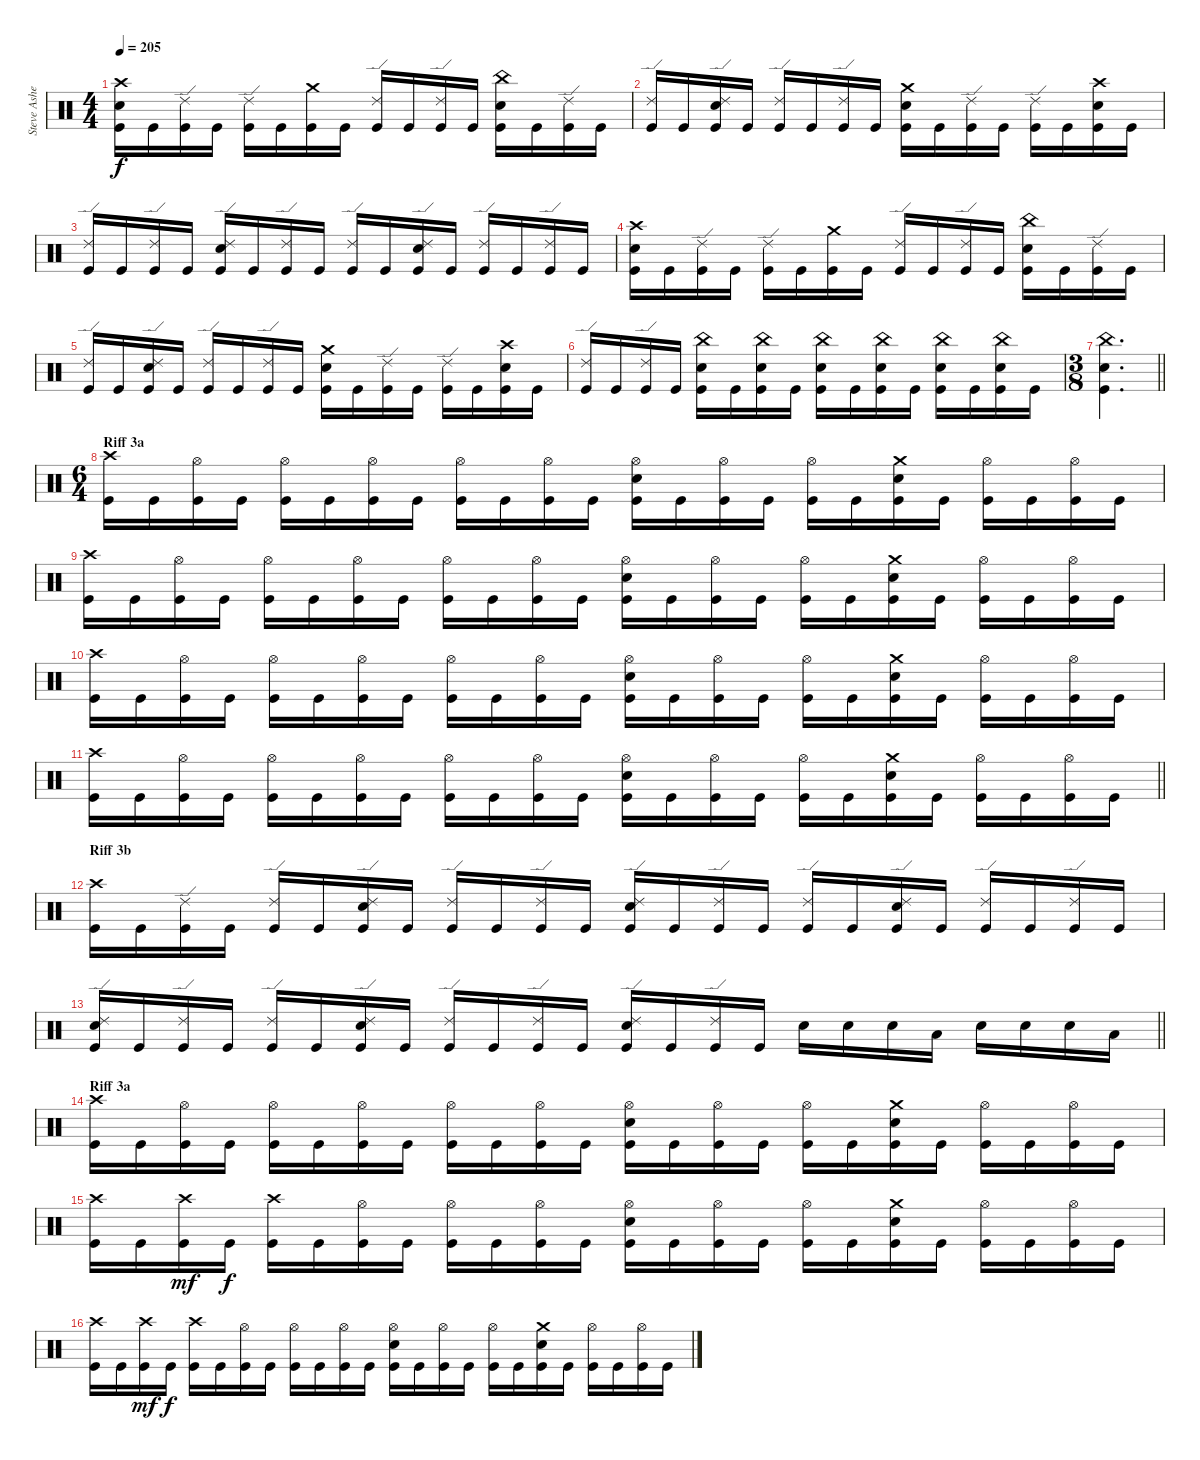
\track ("Steve Asheim" "Steve Ashe") {instrument percussion}
\staff {score}
\articulation defaults
\ts (4 4)
\tempo 205
\clef neutral
\ks c
("Crash high (hit)" "Snare (hit) 2" "Kick (hit)").16{dy f} "Kick (hit)".16 ("Ride (edge) 2" "Kick (hit)").16 "Kick (hit)".16 ("Ride (edge) 2" "Kick (hit)").16 "Kick (hit)".16 ("Crash medium (hit)" "Kick (hit)").16 "Kick (hit)".16 ("Ride (edge) 2" "Kick (hit)").16 "Kick (hit)".16 ("Ride (edge) 2" "Kick (hit)").16 "Kick (hit)".16 ("China (hit)" "Snare (hit) 2" "Kick (hit)").16 "Kick (hit)".16 ("Ride (edge) 2" "Kick (hit)").16 "Kick (hit)".16 |
("Ride (edge) 2" "Kick (hit)").16 "Kick (hit)".16 ("Ride (edge) 2" "Snare (hit) 2" "Kick (hit)").16 "Kick (hit)".16 ("Ride (edge) 2" "Kick (hit)").16 "Kick (hit)".16 ("Ride (edge) 2" "Kick (hit)").16 "Kick (hit)".16 ("Crash medium (hit)" "Snare (hit) 2" "Kick (hit)").16 "Kick (hit)".16 ("Ride (edge) 2" "Kick (hit)").16 "Kick (hit)".16 ("Ride (edge) 2" "Kick (hit)").16 "Kick (hit)".16 ("Crash high (hit)" "Snare (hit) 2" "Kick (hit)").16 "Kick (hit)".16 |
("Ride (edge) 2" "Kick (hit)").16 "Kick (hit)".16 ("Ride (edge) 2" "Kick (hit)").16 "Kick (hit)".16 ("Ride (edge) 2" "Snare (hit) 2" "Kick (hit)").16 "Kick (hit)".16 ("Ride (edge) 2" "Kick (hit)").16 "Kick (hit)".16 ("Ride (edge) 2" "Kick (hit)").16 "Kick (hit)".16 ("Ride (edge) 2" "Snare (hit) 2" "Kick (hit)").16 "Kick (hit)".16 ("Ride (edge) 2" "Kick (hit)").16 "Kick (hit)".16 ("Ride (edge) 2" "Kick (hit)").16 "Kick (hit)".16 |
("Crash high (hit)" "Snare (hit) 2" "Kick (hit)").16 "Kick (hit)".16 ("Ride (edge) 2" "Kick (hit)").16 "Kick (hit)".16 ("Ride (edge) 2" "Kick (hit)").16 "Kick (hit)".16 ("Crash medium (hit)" "Kick (hit)").16 "Kick (hit)".16 ("Ride (edge) 2" "Kick (hit)").16 "Kick (hit)".16 ("Ride (edge) 2" "Kick (hit)").16 "Kick (hit)".16 ("China (hit)" "Snare (hit) 2" "Kick (hit)").16 "Kick (hit)".16 ("Ride (edge) 2" "Kick (hit)").16 "Kick (hit)".16 |
("Ride (edge) 2" "Kick (hit)").16 "Kick (hit)".16 ("Ride (edge) 2" "Snare (hit) 2" "Kick (hit)").16 "Kick (hit)".16 ("Ride (edge) 2" "Kick (hit)").16 "Kick (hit)".16 ("Ride (edge) 2" "Kick (hit)").16 "Kick (hit)".16 ("Crash medium (hit)" "Snare (hit) 2" "Kick (hit)").16 "Kick (hit)".16 ("Ride (edge) 2" "Kick (hit)").16 "Kick (hit)".16 ("Ride (edge) 2" "Kick (hit)").16 "Kick (hit)".16 ("Crash high (hit)" "Snare (hit) 2" "Kick (hit)").16 "Kick (hit)".16 |
("Ride (edge) 2" "Kick (hit)").16 "Kick (hit)".16 ("Ride (edge) 2" "Kick (hit)").16 "Kick (hit)".16 ("China (hit)" "Snare (hit) 2" "Kick (hit)").16 "Kick (hit)".16 ("China (hit)" "Snare (hit) 2" "Kick (hit)").16 "Kick (hit)".16 ("China (hit)" "Snare (hit) 2" "Kick (hit)").16 "Kick (hit)".16 ("China (hit)" "Snare (hit) 2" "Kick (hit)").16 "Kick (hit)".16 ("China (hit)" "Snare (hit) 2" "Kick (hit)").16 "Kick (hit)".16 ("China (hit)" "Snare (hit) 2" "Kick (hit)").16 "Kick (hit)".16 |
\ts (3 8)
\barLineRight lightlight
("China (hit)" "Snare (hit) 2" "Kick (hit)").4{d} |
\ts (6 4)
\section ("" "Riff 3a")
("Crash high (hit)" "Kick (hit)").16 "Kick (hit)".16 ("Hi-Hat (open)" "Kick (hit)").16 "Kick (hit)".16 ("Hi-Hat (open)" "Kick (hit)").16 "Kick (hit)".16 ("Hi-Hat (open)" "Kick (hit)").16 "Kick (hit)".16 ("Hi-Hat (open)" "Kick (hit)").16 "Kick (hit)".16 ("Hi-Hat (open)" "Kick (hit)").16 "Kick (hit)".16 ("Hi-Hat (open)" "Snare (hit) 2" "Kick (hit)").16 "Kick (hit)".16 ("Hi-Hat (open)" "Kick (hit)").16 "Kick (hit)".16 ("Hi-Hat (open)" "Kick (hit)").16 "Kick (hit)".16 ("Crash medium (hit)" "Snare (hit) 2" "Kick (hit)").16 "Kick (hit)".16 ("Hi-Hat (open)" "Kick (hit)").16 "Kick (hit)".16 ("Hi-Hat (open)" "Kick (hit)").16 "Kick (hit)".16 |
("Crash high (hit)" "Kick (hit)").16 "Kick (hit)".16 ("Hi-Hat (open)" "Kick (hit)").16 "Kick (hit)".16 ("Hi-Hat (open)" "Kick (hit)").16 "Kick (hit)".16 ("Hi-Hat (open)" "Kick (hit)").16 "Kick (hit)".16 ("Hi-Hat (open)" "Kick (hit)").16 "Kick (hit)".16 ("Hi-Hat (open)" "Kick (hit)").16 "Kick (hit)".16 ("Hi-Hat (open)" "Snare (hit) 2" "Kick (hit)").16 "Kick (hit)".16 ("Hi-Hat (open)" "Kick (hit)").16 "Kick (hit)".16 ("Hi-Hat (open)" "Kick (hit)").16 "Kick (hit)".16 ("Crash medium (hit)" "Snare (hit) 2" "Kick (hit)").16 "Kick (hit)".16 ("Hi-Hat (open)" "Kick (hit)").16 "Kick (hit)".16 ("Hi-Hat (open)" "Kick (hit)").16 "Kick (hit)".16 |
("Crash high (hit)" "Kick (hit)").16 "Kick (hit)".16 ("Hi-Hat (open)" "Kick (hit)").16 "Kick (hit)".16 ("Hi-Hat (open)" "Kick (hit)").16 "Kick (hit)".16 ("Hi-Hat (open)" "Kick (hit)").16 "Kick (hit)".16 ("Hi-Hat (open)" "Kick (hit)").16 "Kick (hit)".16 ("Hi-Hat (open)" "Kick (hit)").16 "Kick (hit)".16 ("Hi-Hat (open)" "Snare (hit) 2" "Kick (hit)").16 "Kick (hit)".16 ("Hi-Hat (open)" "Kick (hit)").16 "Kick (hit)".16 ("Hi-Hat (open)" "Kick (hit)").16 "Kick (hit)".16 ("Crash medium (hit)" "Snare (hit) 2" "Kick (hit)").16 "Kick (hit)".16 ("Hi-Hat (open)" "Kick (hit)").16 "Kick (hit)".16 ("Hi-Hat (open)" "Kick (hit)").16 "Kick (hit)".16 |
\barLineRight lightlight
("Crash high (hit)" "Kick (hit)").16 "Kick (hit)".16 ("Hi-Hat (open)" "Kick (hit)").16 "Kick (hit)".16 ("Hi-Hat (open)" "Kick (hit)").16 "Kick (hit)".16 ("Hi-Hat (open)" "Kick (hit)").16 "Kick (hit)".16 ("Hi-Hat (open)" "Kick (hit)").16 "Kick (hit)".16 ("Hi-Hat (open)" "Kick (hit)").16 "Kick (hit)".16 ("Hi-Hat (open)" "Snare (hit) 2" "Kick (hit)").16 "Kick (hit)".16 ("Hi-Hat (open)" "Kick (hit)").16 "Kick (hit)".16 ("Hi-Hat (open)" "Kick (hit)").16 "Kick (hit)".16 ("Crash medium (hit)" "Snare (hit) 2" "Kick (hit)").16 "Kick (hit)".16 ("Hi-Hat (open)" "Kick (hit)").16 "Kick (hit)".16 ("Hi-Hat (open)" "Kick (hit)").16 "Kick (hit)".16 |
\section ("" "Riff 3b")
("Crash high (hit)" "Kick (hit)").16 "Kick (hit)".16 ("Ride (edge) 2" "Kick (hit)").16 "Kick (hit)".16 ("Ride (edge) 2" "Kick (hit)").16 "Kick (hit)".16 ("Ride (edge) 2" "Snare (hit) 2" "Kick (hit)").16 "Kick (hit)".16 ("Ride (edge) 2" "Kick (hit)").16 "Kick (hit)".16 ("Ride (edge) 2" "Kick (hit)").16 "Kick (hit)".16 ("Ride (edge) 2" "Snare (hit) 2" "Kick (hit)").16 "Kick (hit)".16 ("Ride (edge) 2" "Kick (hit)").16 "Kick (hit)".16 ("Ride (edge) 2" "Kick (hit)").16 "Kick (hit)".16 ("Ride (edge) 2" "Snare (hit) 2" "Kick (hit)").16 "Kick (hit)".16 ("Ride (edge) 2" "Kick (hit)").16 "Kick (hit)".16 ("Ride (edge) 2" "Kick (hit)").16 "Kick (hit)".16 |
\barLineRight lightlight
("Ride (edge) 2" "Snare (hit) 2" "Kick (hit)").16 "Kick (hit)".16 ("Ride (edge) 2" "Kick (hit)").16 "Kick (hit)".16 ("Ride (edge) 2" "Kick (hit)").16 "Kick (hit)".16 ("Ride (edge) 2" "Snare (hit) 2" "Kick (hit)").16 "Kick (hit)".16 ("Ride (edge) 2" "Kick (hit)").16 "Kick (hit)".16 ("Ride (edge) 2" "Kick (hit)").16 "Kick (hit)".16 ("Ride (edge) 2" "Snare (hit) 2" "Kick (hit)").16 "Kick (hit)".16 ("Ride (edge) 2" "Kick (hit)").16 "Kick (hit)".16 "Snare (hit) 2".16 "Snare (hit) 2".16 "Snare (hit) 2".16 "Low Tom (hit)".16 "Snare (hit) 2".16 "Snare (hit) 2".16 "Snare (hit) 2".16 "Low Tom (hit)".16 |
\section ("" "Riff 3a")
("Crash high (hit)" "Kick (hit)").16 "Kick (hit)".16 ("Hi-Hat (open)" "Kick (hit)").16 "Kick (hit)".16 ("Hi-Hat (open)" "Kick (hit)").16 "Kick (hit)".16 ("Hi-Hat (open)" "Kick (hit)").16 "Kick (hit)".16 ("Hi-Hat (open)" "Kick (hit)").16 "Kick (hit)".16 ("Hi-Hat (open)" "Kick (hit)").16 "Kick (hit)".16 ("Hi-Hat (open)" "Snare (hit) 2" "Kick (hit)").16 "Kick (hit)".16 ("Hi-Hat (open)" "Kick (hit)").16 "Kick (hit)".16 ("Hi-Hat (open)" "Kick (hit)").16 "Kick (hit)".16 ("Crash medium (hit)" "Snare (hit) 2" "Kick (hit)").16 "Kick (hit)".16 ("Hi-Hat (open)" "Kick (hit)").16 "Kick (hit)".16 ("Hi-Hat (open)" "Kick (hit)").16 "Kick (hit)".16 |
("Crash high (hit)" "Kick (hit)").16 "Kick (hit)".16 ("Crash high (hit)" "Kick (hit)").16{dy mf} "Kick (hit)".16{dy f} ("Crash high (hit)" "Kick (hit)").16 "Kick (hit)".16 ("Hi-Hat (open)" "Kick (hit)").16 "Kick (hit)".16 ("Hi-Hat (open)" "Kick (hit)").16 "Kick (hit)".16 ("Hi-Hat (open)" "Kick (hit)").16 "Kick (hit)".16 ("Hi-Hat (open)" "Snare (hit) 2" "Kick (hit)").16 "Kick (hit)".16 ("Hi-Hat (open)" "Kick (hit)").16 "Kick (hit)".16 ("Hi-Hat (open)" "Kick (hit)").16 "Kick (hit)".16 ("Crash medium (hit)" "Snare (hit) 2" "Kick (hit)").16 "Kick (hit)".16 ("Hi-Hat (open)" "Kick (hit)").16 "Kick (hit)".16 ("Hi-Hat (open)" "Kick (hit)").16 "Kick (hit)".16 |
("Crash high (hit)" "Kick (hit)").16 "Kick (hit)".16 ("Crash high (hit)" "Kick (hit)").16{dy mf} "Kick (hit)".16{dy f} ("Crash high (hit)" "Kick (hit)").16 "Kick (hit)".16 ("Hi-Hat (open)" "Kick (hit)").16 "Kick (hit)".16 ("Hi-Hat (open)" "Kick (hit)").16 "Kick (hit)".16 ("Hi-Hat (open)" "Kick (hit)").16 "Kick (hit)".16 ("Hi-Hat (open)" "Snare (hit) 2" "Kick (hit)").16 "Kick (hit)".16 ("Hi-Hat (open)" "Kick (hit)").16 "Kick (hit)".16 ("Hi-Hat (open)" "Kick (hit)").16 "Kick (hit)".16 ("Crash medium (hit)" "Snare (hit) 2" "Kick (hit)").16 "Kick (hit)".16 ("Hi-Hat (open)" "Kick (hit)").16 "Kick (hit)".16 ("Hi-Hat (open)" "Kick (hit)").16 "Kick (hit)".16
